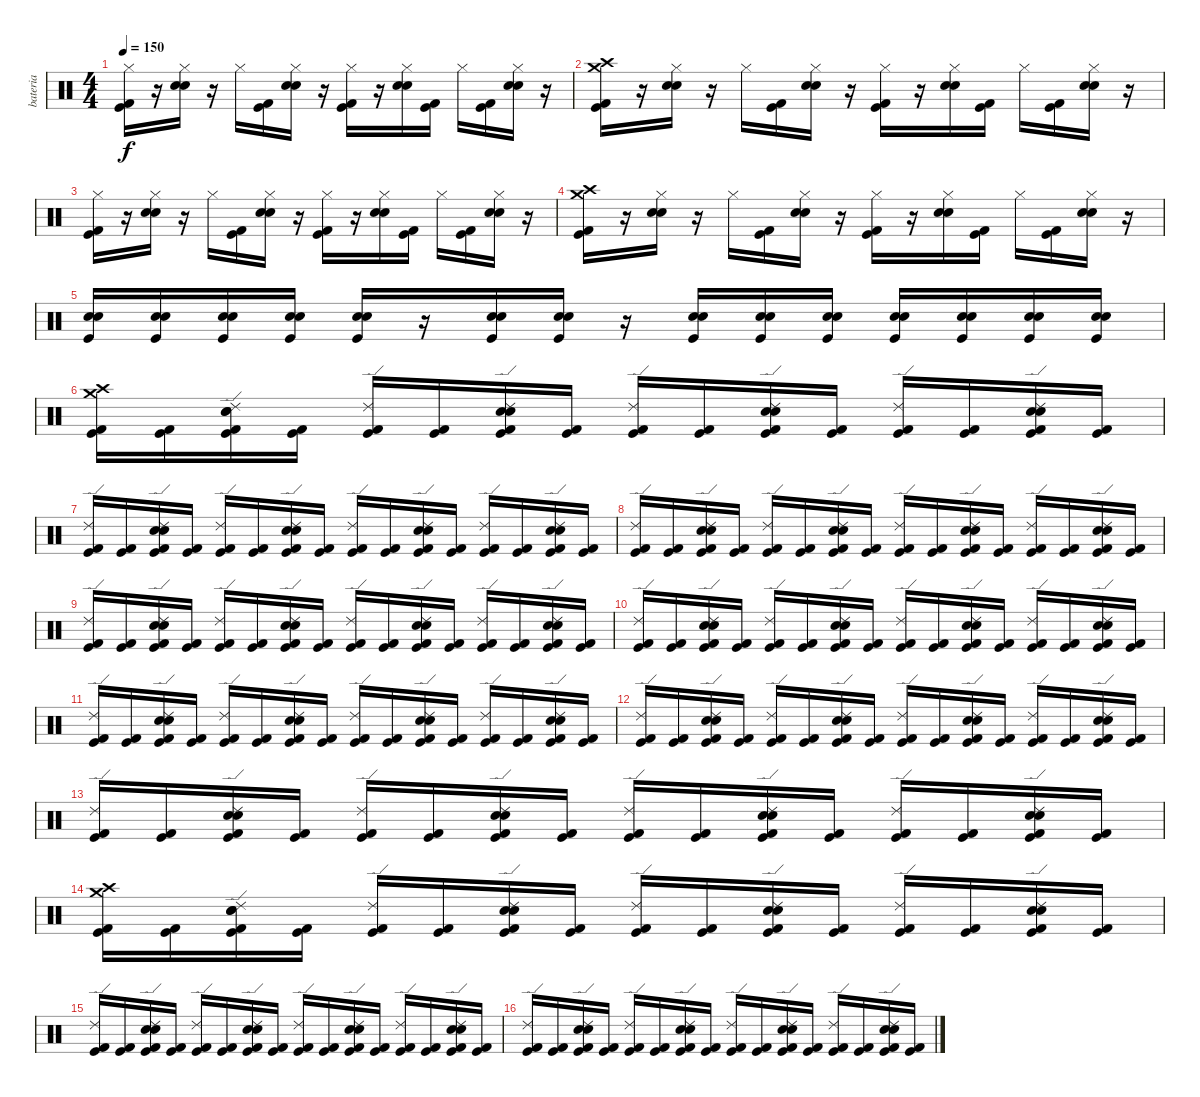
\track ("bateria" "bateria") {instrument percussion}
\staff {score}
\articulation defaults
\ts (4 4)
\tempo 150
\clef neutral
\ks c
("Hi-Hat (closed)" "Kick (hit) 2" "Kick (hit)").16{dy f} r.16 ("Hi-Hat (closed)" "Electric Snare (hit)" "Snare (hit) 2").16 r.16 "Hi-Hat (closed)".16 ("Kick (hit) 2" "Kick (hit)").16 ("Hi-Hat (closed)" "Electric Snare (hit)" "Snare (hit) 2").16 r.16 ("Hi-Hat (closed)" "Kick (hit) 2" "Kick (hit)").16 r.16 ("Hi-Hat (closed)" "Electric Snare (hit)" "Snare (hit) 2").16 ("Kick (hit) 2" "Kick (hit)").16 "Hi-Hat (closed)".16 ("Kick (hit) 2" "Kick (hit)").16 ("Hi-Hat (closed)" "Electric Snare (hit)" "Snare (hit) 2").16 r.16 |
("Crash high (hit)" "Crash medium (hit)" "Kick (hit) 2" "Kick (hit)").16 r.16 ("Hi-Hat (closed)" "Electric Snare (hit)" "Snare (hit) 2").16 r.16 "Hi-Hat (closed)".16 ("Kick (hit) 2" "Kick (hit)").16 ("Hi-Hat (closed)" "Electric Snare (hit)" "Snare (hit) 2").16 r.16 ("Hi-Hat (closed)" "Kick (hit) 2" "Kick (hit)").16 r.16 ("Hi-Hat (closed)" "Electric Snare (hit)" "Snare (hit) 2").16 ("Kick (hit) 2" "Kick (hit)").16 "Hi-Hat (closed)".16 ("Kick (hit) 2" "Kick (hit)").16 ("Hi-Hat (closed)" "Electric Snare (hit)" "Snare (hit) 2").16 r.16 |
("Hi-Hat (closed)" "Kick (hit) 2" "Kick (hit)").16 r.16 ("Hi-Hat (closed)" "Electric Snare (hit)" "Snare (hit) 2").16 r.16 "Hi-Hat (closed)".16 ("Kick (hit) 2" "Kick (hit)").16 ("Hi-Hat (closed)" "Electric Snare (hit)" "Snare (hit) 2").16 r.16 ("Hi-Hat (closed)" "Kick (hit) 2" "Kick (hit)").16 r.16 ("Hi-Hat (closed)" "Electric Snare (hit)" "Snare (hit) 2").16 ("Kick (hit) 2" "Kick (hit)").16 "Hi-Hat (closed)".16 ("Kick (hit) 2" "Kick (hit)").16 ("Hi-Hat (closed)" "Electric Snare (hit)" "Snare (hit) 2").16 r.16 |
("Crash medium (hit)" "Crash high (hit)" "Kick (hit) 2" "Kick (hit)").16 r.16 ("Hi-Hat (closed)" "Electric Snare (hit)" "Snare (hit) 2").16 r.16 "Hi-Hat (closed)".16 ("Kick (hit) 2" "Kick (hit)").16 ("Hi-Hat (closed)" "Electric Snare (hit)" "Snare (hit) 2").16 r.16 ("Hi-Hat (closed)" "Kick (hit) 2" "Kick (hit)").16 r.16 ("Hi-Hat (closed)" "Electric Snare (hit)" "Snare (hit) 2").16 ("Kick (hit) 2" "Kick (hit)").16 "Hi-Hat (closed)".16 ("Kick (hit) 2" "Kick (hit)").16 ("Hi-Hat (closed)" "Electric Snare (hit)" "Snare (hit) 2").16 r.16 |
("Kick (hit)" "Electric Snare (hit)" "Snare (hit) 2").16 ("Kick (hit)" "Electric Snare (hit)" "Snare (hit) 2").16 ("Kick (hit)" "Electric Snare (hit)" "Snare (hit) 2").16 ("Kick (hit)" "Electric Snare (hit)" "Snare (hit) 2").16 ("Kick (hit)" "Electric Snare (hit)" "Snare (hit) 2").16 r.16 ("Kick (hit)" "Electric Snare (hit)" "Snare (hit) 2").16 ("Kick (hit)" "Electric Snare (hit)" "Snare (hit) 2").16 r.16 ("Kick (hit)" "Electric Snare (hit)" "Snare (hit) 2").16 ("Kick (hit)" "Electric Snare (hit)" "Snare (hit) 2").16 ("Kick (hit)" "Electric Snare (hit)" "Snare (hit) 2").16 ("Kick (hit)" "Electric Snare (hit)" "Snare (hit) 2").16 ("Kick (hit)" "Electric Snare (hit)" "Snare (hit) 2").16 ("Kick (hit)" "Electric Snare (hit)" "Snare (hit) 2").16 ("Kick (hit)" "Electric Snare (hit)" "Snare (hit) 2").16 |
("Crash high (hit)" "Crash medium (hit)" "Kick (hit) 2" "Kick (hit)").16 ("Kick (hit) 2" "Kick (hit)").16 ("Ride (edge) 2" "Electric Snare (hit)" "Snare (hit) 2" "Kick (hit) 2" "Kick (hit)").16 ("Kick (hit) 2" "Kick (hit)").16 ("Ride (edge) 2" "Kick (hit) 2" "Kick (hit)").16 ("Kick (hit)" "Kick (hit) 2").16 ("Ride (edge) 2" "Snare (hit) 2" "Electric Snare (hit)" "Kick (hit) 2" "Kick (hit)").16 ("Kick (hit) 2" "Kick (hit)").16 ("Ride (edge) 2" "Kick (hit) 2" "Kick (hit)").16 ("Kick (hit) 2" "Kick (hit)").16 ("Ride (edge) 2" "Electric Snare (hit)" "Snare (hit) 2" "Kick (hit) 2" "Kick (hit)").16 ("Kick (hit) 2" "Kick (hit)").16 ("Ride (edge) 2" "Kick (hit) 2" "Kick (hit)").16 ("Kick (hit) 2" "Kick (hit)").16 ("Ride (edge) 2" "Electric Snare (hit)" "Snare (hit) 2" "Kick (hit) 2" "Kick (hit)").16 ("Kick (hit) 2" "Kick (hit)").16 |
("Ride (edge) 2" "Kick (hit) 2" "Kick (hit)").16 ("Kick (hit) 2" "Kick (hit)").16 ("Ride (edge) 2" "Electric Snare (hit)" "Snare (hit) 2" "Kick (hit) 2" "Kick (hit)").16 ("Kick (hit) 2" "Kick (hit)").16 ("Ride (edge) 2" "Kick (hit) 2" "Kick (hit)").16 ("Kick (hit) 2" "Kick (hit)").16 ("Ride (edge) 2" "Electric Snare (hit)" "Snare (hit) 2" "Kick (hit) 2" "Kick (hit)").16 ("Kick (hit) 2" "Kick (hit)").16 ("Ride (edge) 2" "Kick (hit) 2" "Kick (hit)").16 ("Kick (hit) 2" "Kick (hit)").16 ("Ride (edge) 2" "Electric Snare (hit)" "Snare (hit) 2" "Kick (hit) 2" "Kick (hit)").16 ("Kick (hit) 2" "Kick (hit)").16 ("Ride (edge) 2" "Kick (hit) 2" "Kick (hit)").16 ("Kick (hit) 2" "Kick (hit)").16 ("Ride (edge) 2" "Electric Snare (hit)" "Snare (hit) 2" "Kick (hit) 2" "Kick (hit)").16 ("Kick (hit) 2" "Kick (hit)").16 |
("Ride (edge) 2" "Kick (hit) 2" "Kick (hit)").16 ("Kick (hit) 2" "Kick (hit)").16 ("Ride (edge) 2" "Electric Snare (hit)" "Snare (hit) 2" "Kick (hit) 2" "Kick (hit)").16 ("Kick (hit) 2" "Kick (hit)").16 ("Ride (edge) 2" "Kick (hit) 2" "Kick (hit)").16 ("Kick (hit) 2" "Kick (hit)").16 ("Ride (edge) 2" "Electric Snare (hit)" "Snare (hit) 2" "Kick (hit) 2" "Kick (hit)").16 ("Kick (hit) 2" "Kick (hit)").16 ("Ride (edge) 2" "Kick (hit) 2" "Kick (hit)").16 ("Kick (hit) 2" "Kick (hit)").16 ("Ride (edge) 2" "Electric Snare (hit)" "Snare (hit) 2" "Kick (hit) 2" "Kick (hit)").16 ("Kick (hit) 2" "Kick (hit)").16 ("Ride (edge) 2" "Kick (hit) 2" "Kick (hit)").16 ("Kick (hit) 2" "Kick (hit)").16 ("Ride (edge) 2" "Electric Snare (hit)" "Snare (hit) 2" "Kick (hit) 2" "Kick (hit)").16 ("Kick (hit) 2" "Kick (hit)").16 |
("Ride (edge) 2" "Kick (hit) 2" "Kick (hit)").16 ("Kick (hit) 2" "Kick (hit)").16 ("Ride (edge) 2" "Electric Snare (hit)" "Snare (hit) 2" "Kick (hit) 2" "Kick (hit)").16 ("Kick (hit) 2" "Kick (hit)").16 ("Ride (edge) 2" "Kick (hit) 2" "Kick (hit)").16 ("Kick (hit) 2" "Kick (hit)").16 ("Ride (edge) 2" "Electric Snare (hit)" "Snare (hit) 2" "Kick (hit) 2" "Kick (hit)").16 ("Kick (hit) 2" "Kick (hit)").16 ("Ride (edge) 2" "Kick (hit) 2" "Kick (hit)").16 ("Kick (hit) 2" "Kick (hit)").16 ("Ride (edge) 2" "Electric Snare (hit)" "Snare (hit) 2" "Kick (hit) 2" "Kick (hit)").16 ("Kick (hit) 2" "Kick (hit)").16 ("Ride (edge) 2" "Kick (hit) 2" "Kick (hit)").16 ("Kick (hit) 2" "Kick (hit)").16 ("Ride (edge) 2" "Electric Snare (hit)" "Snare (hit) 2" "Kick (hit) 2" "Kick (hit)").16 ("Kick (hit) 2" "Kick (hit)").16 |
("Ride (edge) 2" "Kick (hit) 2" "Kick (hit)").16 ("Kick (hit) 2" "Kick (hit)").16 ("Ride (edge) 2" "Electric Snare (hit)" "Snare (hit) 2" "Kick (hit) 2" "Kick (hit)").16 ("Kick (hit) 2" "Kick (hit)").16 ("Ride (edge) 2" "Kick (hit) 2" "Kick (hit)").16 ("Kick (hit) 2" "Kick (hit)").16 ("Ride (edge) 2" "Electric Snare (hit)" "Snare (hit) 2" "Kick (hit) 2" "Kick (hit)").16 ("Kick (hit) 2" "Kick (hit)").16 ("Ride (edge) 2" "Kick (hit) 2" "Kick (hit)").16 ("Kick (hit) 2" "Kick (hit)").16 ("Ride (edge) 2" "Electric Snare (hit)" "Snare (hit) 2" "Kick (hit) 2" "Kick (hit)").16 ("Kick (hit) 2" "Kick (hit)").16 ("Ride (edge) 2" "Kick (hit) 2" "Kick (hit)").16 ("Kick (hit) 2" "Kick (hit)").16 ("Ride (edge) 2" "Electric Snare (hit)" "Snare (hit) 2" "Kick (hit) 2" "Kick (hit)").16 ("Kick (hit) 2" "Kick (hit)").16 |
("Ride (edge) 2" "Kick (hit) 2" "Kick (hit)").16 ("Kick (hit) 2" "Kick (hit)").16 ("Ride (edge) 2" "Electric Snare (hit)" "Snare (hit) 2" "Kick (hit) 2" "Kick (hit)").16 ("Kick (hit) 2" "Kick (hit)").16 ("Ride (edge) 2" "Kick (hit) 2" "Kick (hit)").16 ("Kick (hit) 2" "Kick (hit)").16 ("Ride (edge) 2" "Electric Snare (hit)" "Snare (hit) 2" "Kick (hit) 2" "Kick (hit)").16 ("Kick (hit) 2" "Kick (hit)").16 ("Ride (edge) 2" "Kick (hit) 2" "Kick (hit)").16 ("Kick (hit) 2" "Kick (hit)").16 ("Ride (edge) 2" "Electric Snare (hit)" "Snare (hit) 2" "Kick (hit) 2" "Kick (hit)").16 ("Kick (hit) 2" "Kick (hit)").16 ("Ride (edge) 2" "Kick (hit) 2" "Kick (hit)").16 ("Kick (hit) 2" "Kick (hit)").16 ("Ride (edge) 2" "Electric Snare (hit)" "Snare (hit) 2" "Kick (hit) 2" "Kick (hit)").16 ("Kick (hit) 2" "Kick (hit)").16 |
("Ride (edge) 2" "Kick (hit) 2" "Kick (hit)").16 ("Kick (hit) 2" "Kick (hit)").16 ("Ride (edge) 2" "Electric Snare (hit)" "Snare (hit) 2" "Kick (hit) 2" "Kick (hit)").16 ("Kick (hit) 2" "Kick (hit)").16 ("Ride (edge) 2" "Kick (hit) 2" "Kick (hit)").16 ("Kick (hit) 2" "Kick (hit)").16 ("Ride (edge) 2" "Electric Snare (hit)" "Snare (hit) 2" "Kick (hit) 2" "Kick (hit)").16 ("Kick (hit) 2" "Kick (hit)").16 ("Ride (edge) 2" "Kick (hit) 2" "Kick (hit)").16 ("Kick (hit) 2" "Kick (hit)").16 ("Ride (edge) 2" "Electric Snare (hit)" "Snare (hit) 2" "Kick (hit) 2" "Kick (hit)").16 ("Kick (hit) 2" "Kick (hit)").16 ("Ride (edge) 2" "Kick (hit) 2" "Kick (hit)").16 ("Kick (hit) 2" "Kick (hit)").16 ("Ride (edge) 2" "Electric Snare (hit)" "Snare (hit) 2" "Kick (hit) 2" "Kick (hit)").16 ("Kick (hit) 2" "Kick (hit)").16 |
("Ride (edge) 2" "Kick (hit) 2" "Kick (hit)").16 ("Kick (hit) 2" "Kick (hit)").16 ("Ride (edge) 2" "Electric Snare (hit)" "Snare (hit) 2" "Kick (hit) 2" "Kick (hit)").16 ("Kick (hit) 2" "Kick (hit)").16 ("Ride (edge) 2" "Kick (hit) 2" "Kick (hit)").16 ("Kick (hit) 2" "Kick (hit)").16 ("Ride (edge) 2" "Electric Snare (hit)" "Snare (hit) 2" "Kick (hit) 2" "Kick (hit)").16 ("Kick (hit) 2" "Kick (hit)").16 ("Ride (edge) 2" "Kick (hit) 2" "Kick (hit)").16 ("Kick (hit) 2" "Kick (hit)").16 ("Ride (edge) 2" "Electric Snare (hit)" "Snare (hit) 2" "Kick (hit) 2" "Kick (hit)").16 ("Kick (hit) 2" "Kick (hit)").16 ("Ride (edge) 2" "Kick (hit) 2" "Kick (hit)").16 ("Kick (hit) 2" "Kick (hit)").16 ("Ride (edge) 2" "Electric Snare (hit)" "Snare (hit) 2" "Kick (hit) 2" "Kick (hit)").16 ("Kick (hit) 2" "Kick (hit)").16 |
("Crash high (hit)" "Crash medium (hit)" "Kick (hit) 2" "Kick (hit)").16 ("Kick (hit) 2" "Kick (hit)").16 ("Ride (edge) 2" "Electric Snare (hit)" "Snare (hit) 2" "Kick (hit) 2" "Kick (hit)").16 ("Kick (hit) 2" "Kick (hit)").16 ("Ride (edge) 2" "Kick (hit) 2" "Kick (hit)").16 ("Kick (hit) 2" "Kick (hit)").16 ("Ride (edge) 2" "Electric Snare (hit)" "Snare (hit) 2" "Kick (hit) 2" "Kick (hit)").16 ("Kick (hit) 2" "Kick (hit)").16 ("Ride (edge) 2" "Kick (hit) 2" "Kick (hit)").16 ("Kick (hit) 2" "Kick (hit)").16 ("Ride (edge) 2" "Electric Snare (hit)" "Snare (hit) 2" "Kick (hit) 2" "Kick (hit)").16 ("Kick (hit) 2" "Kick (hit)").16 ("Ride (edge) 2" "Kick (hit) 2" "Kick (hit)").16 ("Kick (hit) 2" "Kick (hit)").16 ("Ride (edge) 2" "Electric Snare (hit)" "Snare (hit) 2" "Kick (hit) 2" "Kick (hit)").16 ("Kick (hit) 2" "Kick (hit)").16 |
("Ride (edge) 2" "Kick (hit) 2" "Kick (hit)").16 ("Kick (hit) 2" "Kick (hit)").16 ("Ride (edge) 2" "Electric Snare (hit)" "Snare (hit) 2" "Kick (hit) 2" "Kick (hit)").16 ("Kick (hit) 2" "Kick (hit)").16 ("Ride (edge) 2" "Kick (hit) 2" "Kick (hit)").16 ("Kick (hit) 2" "Kick (hit)").16 ("Ride (edge) 2" "Electric Snare (hit)" "Snare (hit) 2" "Kick (hit) 2" "Kick (hit)").16 ("Kick (hit) 2" "Kick (hit)").16 ("Ride (edge) 2" "Kick (hit) 2" "Kick (hit)").16 ("Kick (hit) 2" "Kick (hit)").16 ("Ride (edge) 2" "Electric Snare (hit)" "Snare (hit) 2" "Kick (hit) 2" "Kick (hit)").16 ("Kick (hit) 2" "Kick (hit)").16 ("Ride (edge) 2" "Kick (hit) 2" "Kick (hit)").16 ("Kick (hit) 2" "Kick (hit)").16 ("Ride (edge) 2" "Electric Snare (hit)" "Snare (hit) 2" "Kick (hit) 2" "Kick (hit)").16 ("Kick (hit) 2" "Kick (hit)").16 |
("Ride (edge) 2" "Kick (hit) 2" "Kick (hit)").16 ("Kick (hit) 2" "Kick (hit)").16 ("Ride (edge) 2" "Electric Snare (hit)" "Snare (hit) 2" "Kick (hit) 2" "Kick (hit)").16 ("Kick (hit) 2" "Kick (hit)").16 ("Ride (edge) 2" "Kick (hit) 2" "Kick (hit)").16 ("Kick (hit) 2" "Kick (hit)").16 ("Ride (edge) 2" "Electric Snare (hit)" "Snare (hit) 2" "Kick (hit) 2" "Kick (hit)").16 ("Kick (hit) 2" "Kick (hit)").16 ("Ride (edge) 2" "Kick (hit) 2" "Kick (hit)").16 ("Kick (hit) 2" "Kick (hit)").16 ("Ride (edge) 2" "Electric Snare (hit)" "Snare (hit) 2" "Kick (hit) 2" "Kick (hit)").16 ("Kick (hit) 2" "Kick (hit)").16 ("Ride (edge) 2" "Kick (hit) 2" "Kick (hit)").16 ("Kick (hit) 2" "Kick (hit)").16 ("Ride (edge) 2" "Electric Snare (hit)" "Snare (hit) 2" "Kick (hit) 2" "Kick (hit)").16 ("Kick (hit) 2" "Kick (hit)").16
